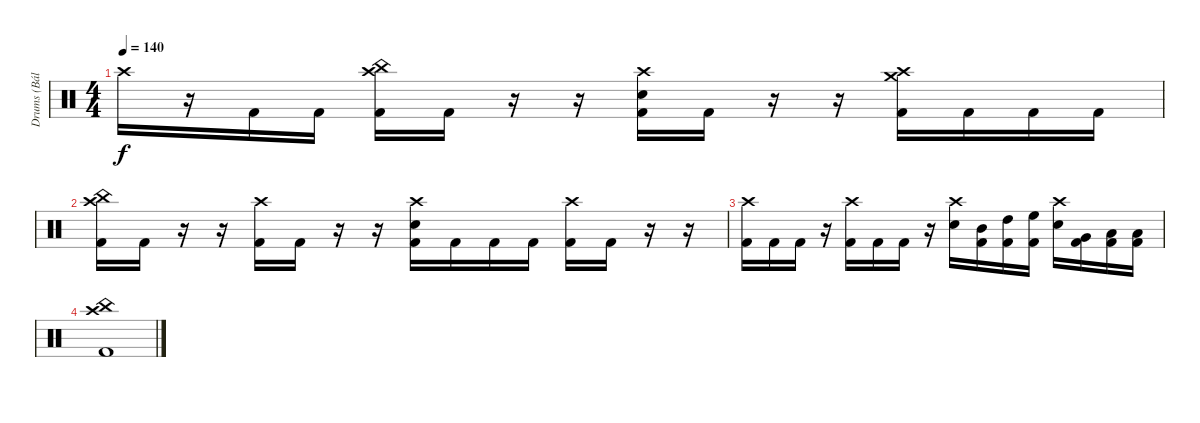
\track ("Drums (Bálint)" "Drums (Bál") {instrument percussion}
\staff {score}
\articulation defaults
\ts (4 4)
\tempo 140
\clef neutral
\ks c "Crash high (hit)".16{dy f}
r.16 "Kick (hit) 2".16 "Kick (hit) 2".16 ("China (hit)" "Crash high (hit)" "Kick (hit) 2").16 "Kick (hit) 2".16 r.16 r.16 ("Crash high (hit)" "Electric Snare (hit)" "Kick (hit) 2").16 "Kick (hit) 2".16 r.16 r.16 ("Crash medium (hit)" "Crash high (hit)" "Kick (hit) 2").16 "Kick (hit) 2".16 "Kick (hit) 2".16 "Kick (hit) 2".16 |
("China (hit)" "Crash high (hit)" "Kick (hit) 2").16 "Kick (hit) 2".16 r.16 r.16 ("Crash high (hit)" "Kick (hit) 2").16 "Kick (hit) 2".16 r.16 r.16 ("Crash high (hit)" "Snare (hit) 2" "Kick (hit) 2").16 "Kick (hit) 2".16 "Kick (hit) 2".16 "Kick (hit) 2".16 ("Crash high (hit)" "Kick (hit) 2").16 "Kick (hit) 2".16 r.16 r.16 |
("Crash high (hit)" "Kick (hit) 2").16 "Kick (hit) 2".16 "Kick (hit) 2".16 r.16 ("Crash high (hit)" "Kick (hit) 2").16 "Kick (hit) 2".16 "Kick (hit) 2".16 r.16 ("Crash high (hit)" "Electric Snare (hit)").16 ("Mid Tom (hit)" "Kick (hit) 2").16 ("High Tom (hit)" "Kick (hit) 2").16 ("High Floor Tom (hit)" "Kick (hit) 2").16 ("Crash high (hit)" "Electric Snare (hit)").16 ("Very Low Tom (hit)" "Kick (hit) 2").16 ("Low Floor Tom (hit)" "Kick (hit) 2").16 ("Low Tom (hit)" "Kick (hit) 2").16 |
("China (hit)" "Crash high (hit)" "Kick (hit) 2").1
